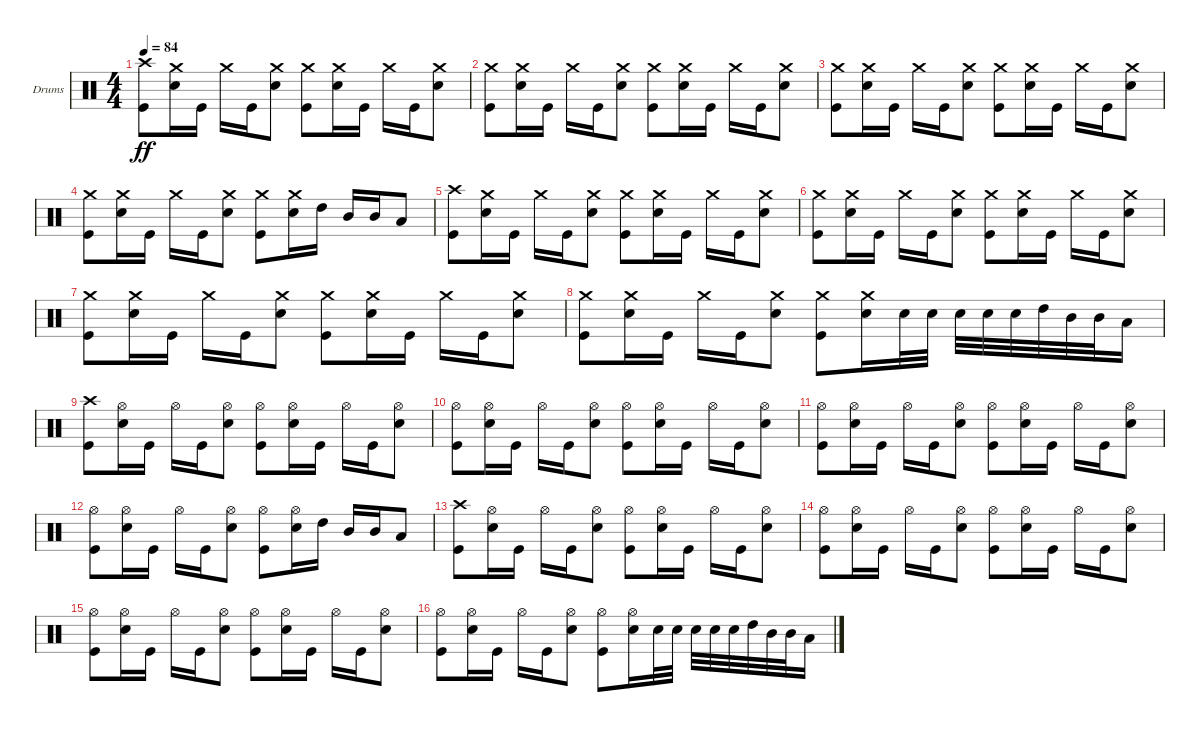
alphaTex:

\defaultSystemsLayout 4
\bracketExtendMode groupsimilarinstruments
\firstSystemTrackNameOrientation horizontal
\otherSystemsTrackNameOrientation horizontal
\track ("Drumkit" "Drums") {instrument percussion}
\staff {score}
\articulation defaults
\ts (4 4)
\tempo 84
\clef neutral
\ks c
("Kick (hit)" "Crash high (hit)").8{dy ff} ("Snare (hit) 2" "Crash medium (hit)").16 "Kick (hit)".16 "Crash medium (hit)".16 "Kick (hit)".16 ("Snare (hit) 2" "Crash medium (hit)").8 ("Kick (hit)" "Crash medium (hit)").8 ("Snare (hit) 2" "Crash medium (hit)").16 "Kick (hit)".16 "Crash medium (hit)".16 "Kick (hit)".16 ("Snare (hit) 2" "Crash medium (hit)").8 |
("Kick (hit)" "Crash medium (hit)").8 ("Snare (hit) 2" "Crash medium (hit)").16 "Kick (hit)".16 "Crash medium (hit)".16 "Kick (hit)".16 ("Snare (hit) 2" "Crash medium (hit)").8 ("Kick (hit)" "Crash medium (hit)").8 ("Snare (hit) 2" "Crash medium (hit)").16 "Kick (hit)".16 "Crash medium (hit)".16 "Kick (hit)".16 ("Snare (hit) 2" "Crash medium (hit)").8 |
("Kick (hit)" "Crash medium (hit)").8 ("Snare (hit) 2" "Crash medium (hit)").16 "Kick (hit)".16 "Crash medium (hit)".16 "Kick (hit)".16 ("Snare (hit) 2" "Crash medium (hit)").8 ("Kick (hit)" "Crash medium (hit)").8 ("Snare (hit) 2" "Crash medium (hit)").16 "Kick (hit)".16 "Crash medium (hit)".16 "Kick (hit)".16 ("Snare (hit) 2" "Crash medium (hit)").8 |
("Kick (hit)" "Crash medium (hit)").8 ("Snare (hit) 2" "Crash medium (hit)").16 "Kick (hit)".16 "Crash medium (hit)".16 "Kick (hit)".16 ("Snare (hit) 2" "Crash medium (hit)").8 ("Kick (hit)" "Crash medium (hit)").8 ("Snare (hit) 2" "Crash medium (hit)").16 "High Tom (hit)".16 "Mid Tom (hit)".16 "Mid Tom (hit)".16 "Low Tom (hit)".8 |
("Kick (hit)" "Crash high (hit)").8 ("Snare (hit) 2" "Crash medium (hit)").16 "Kick (hit)".16 "Crash medium (hit)".16 "Kick (hit)".16 ("Snare (hit) 2" "Crash medium (hit)").8 ("Kick (hit)" "Crash medium (hit)").8 ("Snare (hit) 2" "Crash medium (hit)").16 "Kick (hit)".16 "Crash medium (hit)".16 "Kick (hit)".16 ("Snare (hit) 2" "Crash medium (hit)").8 |
("Kick (hit)" "Crash medium (hit)").8 ("Snare (hit) 2" "Crash medium (hit)").16 "Kick (hit)".16 "Crash medium (hit)".16 "Kick (hit)".16 ("Snare (hit) 2" "Crash medium (hit)").8 ("Kick (hit)" "Crash medium (hit)").8 ("Snare (hit) 2" "Crash medium (hit)").16 "Kick (hit)".16 "Crash medium (hit)".16 "Kick (hit)".16 ("Snare (hit) 2" "Crash medium (hit)").8 |
("Kick (hit)" "Crash medium (hit)").8 ("Snare (hit) 2" "Crash medium (hit)").16 "Kick (hit)".16 "Crash medium (hit)".16 "Kick (hit)".16 ("Snare (hit) 2" "Crash medium (hit)").8 ("Kick (hit)" "Crash medium (hit)").8 ("Snare (hit) 2" "Crash medium (hit)").16 "Kick (hit)".16 "Crash medium (hit)".16 "Kick (hit)".16 ("Snare (hit) 2" "Crash medium (hit)").8 |
("Kick (hit)" "Crash medium (hit)").8 ("Snare (hit) 2" "Crash medium (hit)").16 "Kick (hit)".16 "Crash medium (hit)".16 "Kick (hit)".16 ("Snare (hit) 2" "Crash medium (hit)").8 ("Kick (hit)" "Crash medium (hit)").8 ("Crash medium (hit)" "Snare (hit) 2").16 "Snare (hit) 2".32 "Snare (hit) 2".32 "Snare (hit) 2".32 "Snare (hit) 2".32 "Snare (hit) 2".32 "High Tom (hit)".32 "Mid Tom (hit)".32 "Mid Tom (hit)".32 "Low Tom (hit)".16 |
("Kick (hit)" "Crash high (hit)").8 ("Snare (hit) 2" "Hi-Hat (open)").16 "Kick (hit)".16 "Hi-Hat (open)".16 "Kick (hit)".16 ("Snare (hit) 2" "Hi-Hat (open)").8 ("Kick (hit)" "Hi-Hat (open)").8 ("Snare (hit) 2" "Hi-Hat (open)").16 "Kick (hit)".16 "Hi-Hat (open)".16 "Kick (hit)".16 ("Snare (hit) 2" "Hi-Hat (open)").8 |
("Kick (hit)" "Hi-Hat (open)").8 ("Snare (hit) 2" "Hi-Hat (open)").16 "Kick (hit)".16 "Hi-Hat (open)".16 "Kick (hit)".16 ("Snare (hit) 2" "Hi-Hat (open)").8 ("Kick (hit)" "Hi-Hat (open)").8 ("Snare (hit) 2" "Hi-Hat (open)").16 "Kick (hit)".16 "Hi-Hat (open)".16 "Kick (hit)".16 ("Snare (hit) 2" "Hi-Hat (open)").8 |
("Kick (hit)" "Hi-Hat (open)").8 ("Snare (hit) 2" "Hi-Hat (open)").16 "Kick (hit)".16 "Hi-Hat (open)".16 "Kick (hit)".16 ("Snare (hit) 2" "Hi-Hat (open)").8 ("Kick (hit)" "Hi-Hat (open)").8 ("Snare (hit) 2" "Hi-Hat (open)").16 "Kick (hit)".16 "Hi-Hat (open)".16 "Kick (hit)".16 ("Snare (hit) 2" "Hi-Hat (open)").8 |
("Kick (hit)" "Hi-Hat (open)").8 ("Snare (hit) 2" "Hi-Hat (open)").16 "Kick (hit)".16 "Hi-Hat (open)".16 "Kick (hit)".16 ("Snare (hit) 2" "Hi-Hat (open)").8 ("Kick (hit)" "Hi-Hat (open)").8 ("Snare (hit) 2" "Hi-Hat (open)").16 "High Tom (hit)".16 "Mid Tom (hit)".16 "Mid Tom (hit)".16 "Low Tom (hit)".8 |
("Kick (hit)" "Crash high (hit)").8 ("Snare (hit) 2" "Hi-Hat (open)").16 "Kick (hit)".16 "Hi-Hat (open)".16 "Kick (hit)".16 ("Snare (hit) 2" "Hi-Hat (open)").8 ("Kick (hit)" "Hi-Hat (open)").8 ("Snare (hit) 2" "Hi-Hat (open)").16 "Kick (hit)".16 "Hi-Hat (open)".16 "Kick (hit)".16 ("Snare (hit) 2" "Hi-Hat (open)").8 |
("Kick (hit)" "Hi-Hat (open)").8 ("Snare (hit) 2" "Hi-Hat (open)").16 "Kick (hit)".16 "Hi-Hat (open)".16 "Kick (hit)".16 ("Snare (hit) 2" "Hi-Hat (open)").8 ("Kick (hit)" "Hi-Hat (open)").8 ("Snare (hit) 2" "Hi-Hat (open)").16 "Kick (hit)".16 "Hi-Hat (open)".16 "Kick (hit)".16 ("Snare (hit) 2" "Hi-Hat (open)").8 |
("Kick (hit)" "Hi-Hat (open)").8 ("Snare (hit) 2" "Hi-Hat (open)").16 "Kick (hit)".16 "Hi-Hat (open)".16 "Kick (hit)".16 ("Snare (hit) 2" "Hi-Hat (open)").8 ("Kick (hit)" "Hi-Hat (open)").8 ("Snare (hit) 2" "Hi-Hat (open)").16 "Kick (hit)".16 "Hi-Hat (open)".16 "Kick (hit)".16 ("Snare (hit) 2" "Hi-Hat (open)").8 |
("Kick (hit)" "Hi-Hat (open)").8 ("Snare (hit) 2" "Hi-Hat (open)").16 "Kick (hit)".16 "Hi-Hat (open)".16 "Kick (hit)".16 ("Snare (hit) 2" "Hi-Hat (open)").8 ("Kick (hit)" "Hi-Hat (open)").8 ("Snare (hit) 2" "Hi-Hat (open)").16 "Snare (hit) 2".32 "Snare (hit) 2".32 "Snare (hit) 2".32 "Snare (hit) 2".32 "Snare (hit) 2".32 "High Tom (hit)".32 "Mid Tom (hit)".32 "Mid Tom (hit)".32 "Low Tom (hit)".16
